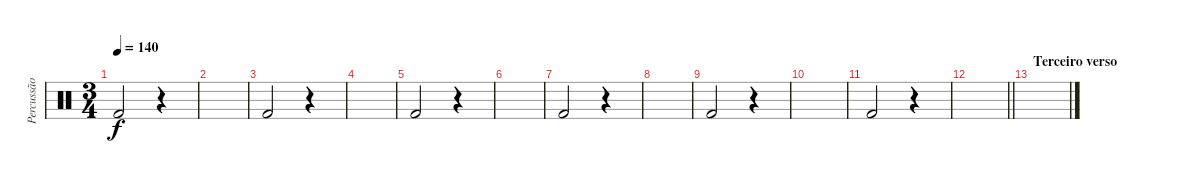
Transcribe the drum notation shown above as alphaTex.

\track ("Percussão" "Percussão") {instrument percussion}
\staff {score}
\articulation defaults
\ts (3 4)
\tempo 140
\clef neutral
\ks c "Kick (hit) 2".2{dy f}
r.4 |
|
"Kick (hit) 2".2 r.4 |
|
"Kick (hit) 2".2 r.4 |
|
"Kick (hit) 2".2 r.4 |
|
"Kick (hit) 2".2 r.4 |
|
"Kick (hit) 2".2 r.4 |
\barLineRight lightlight
|
\section ("" "Terceiro verso")
